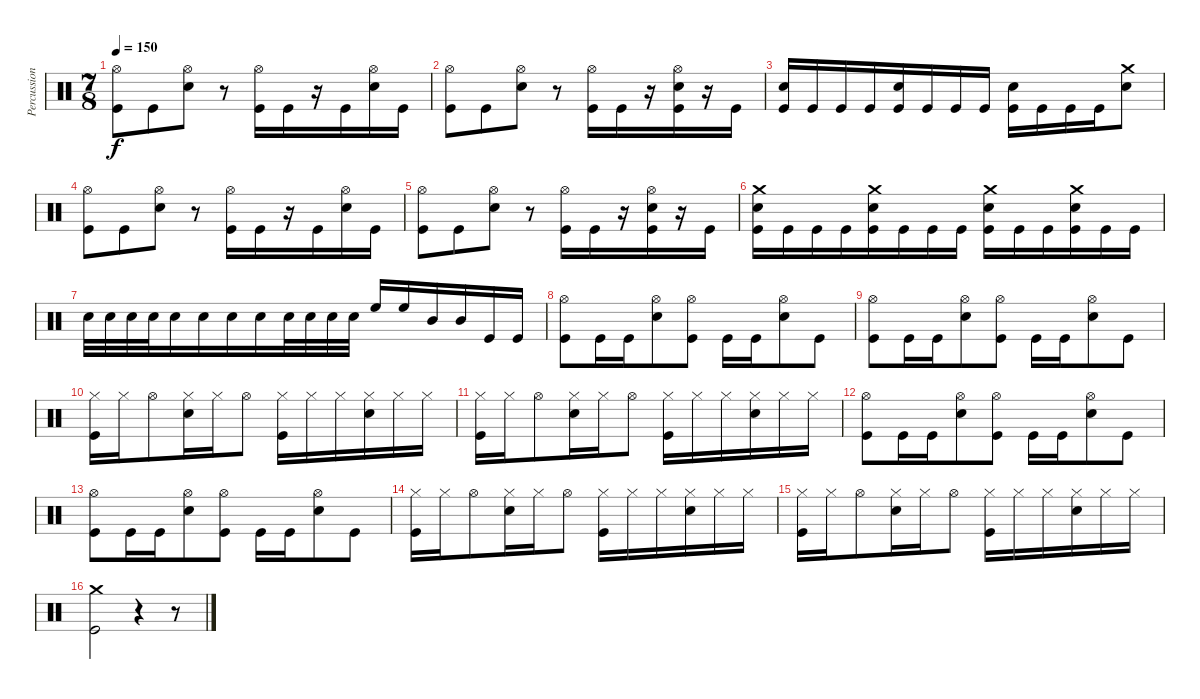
\track ("Percussion" "Percussion") {instrument percussion}
\staff {score}
\articulation defaults
\ts (7 8)
\tempo 150
\clef neutral
\ks c
("Hi-Hat (open)" "Kick (hit)").8{dy f} "Kick (hit)".8 ("Hi-Hat (open)" "Snare (hit) 2").8 r.8 ("Hi-Hat (open)" "Kick (hit)").16 "Kick (hit)".16 r.16 "Kick (hit)".16 ("Hi-Hat (open)" "Snare (hit) 2").16 "Kick (hit)".16 |
("Hi-Hat (open)" "Kick (hit)").8 "Kick (hit)".8 ("Hi-Hat (open)" "Snare (hit) 2").8 r.8 ("Hi-Hat (open)" "Kick (hit)").16 "Kick (hit)".16 r.16 ("Hi-Hat (open)" "Snare (hit) 2" "Kick (hit)").16 r.16 "Kick (hit)".16 |
("Snare (hit) 2" "Kick (hit)").16 "Kick (hit)".16 "Kick (hit)".16 "Kick (hit)".16 ("Snare (hit) 2" "Kick (hit)").16 "Kick (hit)".16 "Kick (hit)".16 "Kick (hit)".16 ("Snare (hit) 2" "Kick (hit)").16 "Kick (hit)".16 "Kick (hit)".16 "Kick (hit)".16 ("Crash medium (hit)" "Snare (hit) 2").8 |
("Hi-Hat (open)" "Kick (hit)").8 "Kick (hit)".8 ("Hi-Hat (open)" "Snare (hit) 2").8 r.8 ("Hi-Hat (open)" "Kick (hit)").16 "Kick (hit)".16 r.16 "Kick (hit)".16 ("Hi-Hat (open)" "Snare (hit) 2").16 "Kick (hit)".16 |
("Hi-Hat (open)" "Kick (hit)").8 "Kick (hit)".8 ("Hi-Hat (open)" "Snare (hit) 2").8 r.8 ("Hi-Hat (open)" "Kick (hit)").16 "Kick (hit)".16 r.16 ("Hi-Hat (open)" "Snare (hit) 2" "Kick (hit)").16 r.16 "Kick (hit)".16 |
("Crash medium (hit)" "Snare (hit) 2" "Kick (hit)").16 "Kick (hit)".16 "Kick (hit)".16 "Kick (hit)".16 ("Crash medium (hit)" "Snare (hit) 2" "Kick (hit)").16 "Kick (hit)".16 "Kick (hit)".16 "Kick (hit)".16 ("Crash medium (hit)" "Snare (hit) 2" "Kick (hit)").16 "Kick (hit)".16 "Kick (hit)".16 ("Crash medium (hit)" "Snare (hit) 2" "Kick (hit)").16 "Kick (hit)".16 "Kick (hit)".16 |
"Snare (hit) 2".32 "Snare (hit) 2".32 "Snare (hit) 2".32 "Snare (hit) 2".32 "Snare (hit) 2".16 "Snare (hit) 2".16 "Snare (hit) 2".16 "Snare (hit) 2".16 "Snare (hit) 2".32 "Snare (hit) 2".32 "Snare (hit) 2".32 "Snare (hit) 2".32 "High Floor Tom (hit)".16 "High Floor Tom (hit)".16 "Mid Tom (hit)".16 "Mid Tom (hit)".16 "Kick (hit)".16 "Kick (hit)".16 |
("Hi-Hat (open)" "Kick (hit)").8 "Kick (hit)".16 "Kick (hit)".16 ("Hi-Hat (open)" "Snare (hit) 2").8 ("Hi-Hat (open)" "Kick (hit)").8 "Kick (hit)".16 "Kick (hit)".16 ("Hi-Hat (open)" "Snare (hit) 2").8 "Kick (hit)".8 |
("Hi-Hat (open)" "Kick (hit)").8 "Kick (hit)".16 "Kick (hit)".16 ("Hi-Hat (open)" "Snare (hit) 2").8 ("Hi-Hat (open)" "Kick (hit)").8 "Kick (hit)".16 "Kick (hit)".16 ("Hi-Hat (open)" "Snare (hit) 2").8 "Kick (hit)".8 |
("Hi-Hat (closed)" "Kick (hit)").16 "Hi-Hat (closed)".16 "Hi-Hat (open)".8 ("Hi-Hat (closed)" "Snare (hit) 2").16 "Hi-Hat (closed)".16 "Hi-Hat (open)".8 ("Hi-Hat (closed)" "Kick (hit)").16 "Hi-Hat (closed)".16 "Hi-Hat (closed)".16 ("Hi-Hat (closed)" "Snare (hit) 2").16 "Hi-Hat (closed)".16 "Hi-Hat (closed)".16 |
("Hi-Hat (closed)" "Kick (hit)").16 "Hi-Hat (closed)".16 "Hi-Hat (open)".8 ("Hi-Hat (closed)" "Snare (hit) 2").16 "Hi-Hat (closed)".16 "Hi-Hat (open)".8 ("Hi-Hat (closed)" "Kick (hit)").16 "Hi-Hat (closed)".16 "Hi-Hat (closed)".16 ("Hi-Hat (closed)" "Snare (hit) 2").16 "Hi-Hat (closed)".16 "Hi-Hat (closed)".16 |
("Hi-Hat (open)" "Kick (hit)").8 "Kick (hit)".16 "Kick (hit)".16 ("Hi-Hat (open)" "Snare (hit) 2").8 ("Hi-Hat (open)" "Kick (hit)").8 "Kick (hit)".16 "Kick (hit)".16 ("Hi-Hat (open)" "Snare (hit) 2").8 "Kick (hit)".8 |
("Hi-Hat (open)" "Kick (hit)").8 "Kick (hit)".16 "Kick (hit)".16 ("Hi-Hat (open)" "Snare (hit) 2").8 ("Hi-Hat (open)" "Kick (hit)").8 "Kick (hit)".16 "Kick (hit)".16 ("Hi-Hat (open)" "Snare (hit) 2").8 "Kick (hit)".8 |
("Hi-Hat (closed)" "Kick (hit)").16 "Hi-Hat (closed)".16 "Hi-Hat (open)".8 ("Hi-Hat (closed)" "Snare (hit) 2").16 "Hi-Hat (closed)".16 "Hi-Hat (open)".8 ("Hi-Hat (closed)" "Kick (hit)").16 "Hi-Hat (closed)".16 "Hi-Hat (closed)".16 ("Hi-Hat (closed)" "Snare (hit) 2").16 "Hi-Hat (closed)".16 "Hi-Hat (closed)".16 |
("Hi-Hat (closed)" "Kick (hit)").16 "Hi-Hat (closed)".16 "Hi-Hat (open)".8 ("Hi-Hat (closed)" "Snare (hit) 2").16 "Hi-Hat (closed)".16 "Hi-Hat (open)".8 ("Hi-Hat (closed)" "Kick (hit)").16 "Hi-Hat (closed)".16 "Hi-Hat (closed)".16 ("Hi-Hat (closed)" "Snare (hit) 2").16 "Hi-Hat (closed)".16 "Hi-Hat (closed)".16 |
("Crash medium (hit)" "Kick (hit)").2 r.4 r.8
